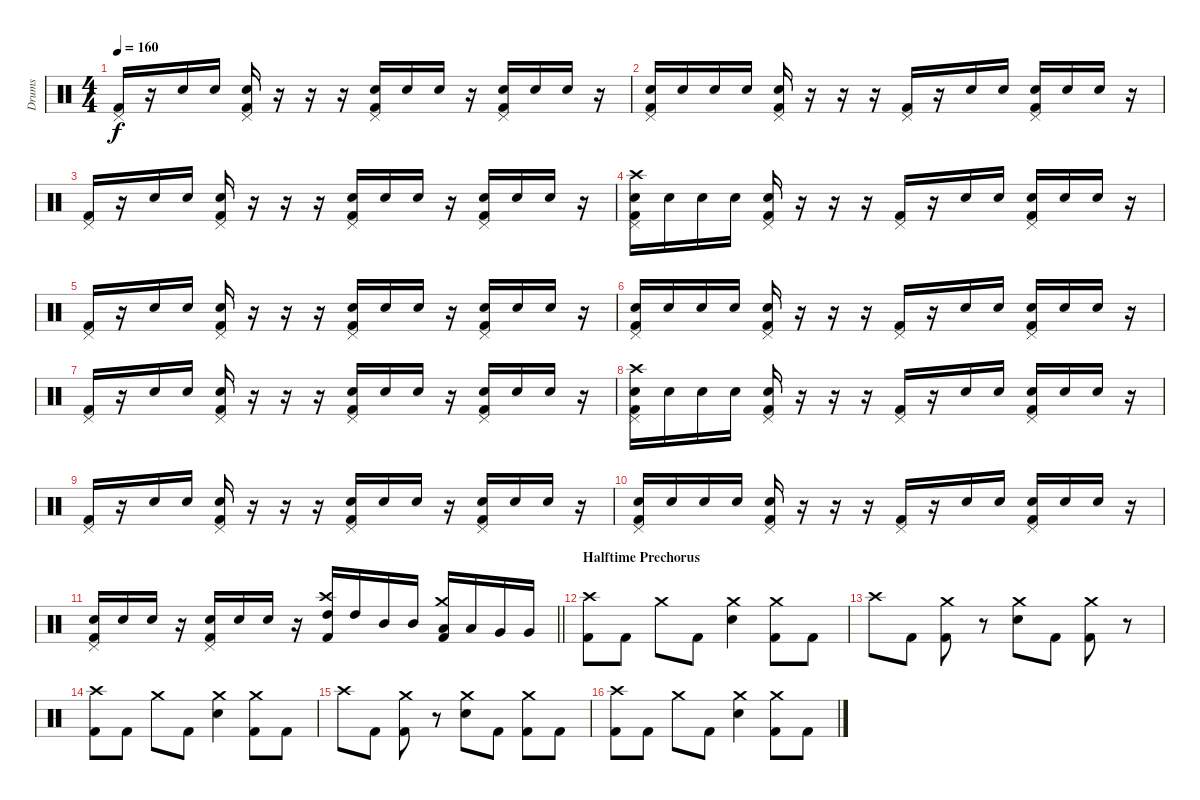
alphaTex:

\track ("Drums" "Drums") {instrument percussion}
\staff {score}
\articulation defaults
\ts (4 4)
\tempo 160
\clef neutral
\ks c
("Pedal Hi-Hat (hit)" "Kick (hit) 2").16{dy f} r.16 "Snare (hit) 2".16 "Snare (hit) 2".16 ("Pedal Hi-Hat (hit)" "Snare (hit) 2" "Kick (hit) 2").16 r.16 r.16 r.16 ("Pedal Hi-Hat (hit)" "Snare (hit) 2" "Kick (hit) 2").16 "Snare (hit) 2".16 "Snare (hit) 2".16 r.16 ("Pedal Hi-Hat (hit)" "Snare (hit) 2" "Kick (hit) 2").16 "Snare (hit) 2".16 "Snare (hit) 2".16 r.16 |
("Pedal Hi-Hat (hit)" "Snare (hit) 2" "Kick (hit) 2").16 "Snare (hit) 2".16 "Snare (hit) 2".16 "Snare (hit) 2".16 ("Pedal Hi-Hat (hit)" "Snare (hit) 2" "Kick (hit) 2").16 r.16 r.16 r.16 ("Pedal Hi-Hat (hit)" "Kick (hit) 2").16 r.16 "Snare (hit) 2".16 "Snare (hit) 2".16 ("Pedal Hi-Hat (hit)" "Snare (hit) 2" "Kick (hit) 2").16 "Snare (hit) 2".16 "Snare (hit) 2".16 r.16 |
("Pedal Hi-Hat (hit)" "Kick (hit) 2").16 r.16 "Snare (hit) 2".16 "Snare (hit) 2".16 ("Pedal Hi-Hat (hit)" "Snare (hit) 2" "Kick (hit) 2").16 r.16 r.16 r.16 ("Pedal Hi-Hat (hit)" "Snare (hit) 2" "Kick (hit) 2").16 "Snare (hit) 2".16 "Snare (hit) 2".16 r.16 ("Pedal Hi-Hat (hit)" "Snare (hit) 2" "Kick (hit) 2").16 "Snare (hit) 2".16 "Snare (hit) 2".16 r.16 |
("Crash high (hit)" "Pedal Hi-Hat (hit)" "Snare (hit) 2" "Kick (hit) 2").16 "Snare (hit) 2".16 "Snare (hit) 2".16 "Snare (hit) 2".16 ("Pedal Hi-Hat (hit)" "Snare (hit) 2" "Kick (hit) 2").16 r.16 r.16 r.16 ("Pedal Hi-Hat (hit)" "Kick (hit) 2").16 r.16 "Snare (hit) 2".16 "Snare (hit) 2".16 ("Pedal Hi-Hat (hit)" "Snare (hit) 2" "Kick (hit) 2").16 "Snare (hit) 2".16 "Snare (hit) 2".16 r.16 |
("Pedal Hi-Hat (hit)" "Kick (hit) 2").16 r.16 "Snare (hit) 2".16 "Snare (hit) 2".16 ("Pedal Hi-Hat (hit)" "Snare (hit) 2" "Kick (hit) 2").16 r.16 r.16 r.16 ("Pedal Hi-Hat (hit)" "Snare (hit) 2" "Kick (hit) 2").16 "Snare (hit) 2".16 "Snare (hit) 2".16 r.16 ("Pedal Hi-Hat (hit)" "Snare (hit) 2" "Kick (hit) 2").16 "Snare (hit) 2".16 "Snare (hit) 2".16 r.16 |
("Pedal Hi-Hat (hit)" "Snare (hit) 2" "Kick (hit) 2").16 "Snare (hit) 2".16 "Snare (hit) 2".16 "Snare (hit) 2".16 ("Pedal Hi-Hat (hit)" "Snare (hit) 2" "Kick (hit) 2").16 r.16 r.16 r.16 ("Pedal Hi-Hat (hit)" "Kick (hit) 2").16 r.16 "Snare (hit) 2".16 "Snare (hit) 2".16 ("Pedal Hi-Hat (hit)" "Snare (hit) 2" "Kick (hit) 2").16 "Snare (hit) 2".16 "Snare (hit) 2".16 r.16 |
("Pedal Hi-Hat (hit)" "Kick (hit) 2").16 r.16 "Snare (hit) 2".16 "Snare (hit) 2".16 ("Pedal Hi-Hat (hit)" "Snare (hit) 2" "Kick (hit) 2").16 r.16 r.16 r.16 ("Pedal Hi-Hat (hit)" "Snare (hit) 2" "Kick (hit) 2").16 "Snare (hit) 2".16 "Snare (hit) 2".16 r.16 ("Pedal Hi-Hat (hit)" "Snare (hit) 2" "Kick (hit) 2").16 "Snare (hit) 2".16 "Snare (hit) 2".16 r.16 |
("Crash high (hit)" "Pedal Hi-Hat (hit)" "Snare (hit) 2" "Kick (hit) 2").16 "Snare (hit) 2".16 "Snare (hit) 2".16 "Snare (hit) 2".16 ("Pedal Hi-Hat (hit)" "Snare (hit) 2" "Kick (hit) 2").16 r.16 r.16 r.16 ("Pedal Hi-Hat (hit)" "Kick (hit) 2").16 r.16 "Snare (hit) 2".16 "Snare (hit) 2".16 ("Pedal Hi-Hat (hit)" "Snare (hit) 2" "Kick (hit) 2").16 "Snare (hit) 2".16 "Snare (hit) 2".16 r.16 |
("Pedal Hi-Hat (hit)" "Kick (hit) 2").16 r.16 "Snare (hit) 2".16 "Snare (hit) 2".16 ("Pedal Hi-Hat (hit)" "Snare (hit) 2" "Kick (hit) 2").16 r.16 r.16 r.16 ("Pedal Hi-Hat (hit)" "Snare (hit) 2" "Kick (hit) 2").16 "Snare (hit) 2".16 "Snare (hit) 2".16 r.16 ("Pedal Hi-Hat (hit)" "Snare (hit) 2" "Kick (hit) 2").16 "Snare (hit) 2".16 "Snare (hit) 2".16 r.16 |
("Pedal Hi-Hat (hit)" "Snare (hit) 2" "Kick (hit) 2").16 "Snare (hit) 2".16 "Snare (hit) 2".16 "Snare (hit) 2".16 ("Pedal Hi-Hat (hit)" "Snare (hit) 2" "Kick (hit) 2").16 r.16 r.16 r.16 ("Pedal Hi-Hat (hit)" "Kick (hit) 2").16 r.16 "Snare (hit) 2".16 "Snare (hit) 2".16 ("Pedal Hi-Hat (hit)" "Snare (hit) 2" "Kick (hit) 2").16 "Snare (hit) 2".16 "Snare (hit) 2".16 r.16 |
\barLineRight lightlight
("Pedal Hi-Hat (hit)" "Snare (hit) 2" "Kick (hit) 2").16 "Snare (hit) 2".16 "Snare (hit) 2".16 r.16 ("Pedal Hi-Hat (hit)" "Snare (hit) 2" "Kick (hit) 2").16 "Snare (hit) 2".16 "Snare (hit) 2".16 r.16 ("Crash high (hit)" "High Tom (hit)" "Kick (hit) 2").16 "High Tom (hit)".16 "Mid Tom (hit)".16 "Mid Tom (hit)".16 ("Crash medium (hit)" "Low Tom (hit)" "Kick (hit) 2").16 "Low Tom (hit)".16 "Very Low Tom (hit)".16 "Very Low Tom (hit)".16 |
\section ("" "Halftime Prechorus")
("Crash high (hit)" "Kick (hit) 2").8 "Kick (hit) 2".8 "Crash medium (hit)".8 "Kick (hit) 2".8 ("Crash medium (hit)" "Snare (hit) 2").4 ("Crash medium (hit)" "Kick (hit) 2").8 "Kick (hit) 2".8 |
"Crash high (hit)".8 "Kick (hit) 2".8 ("Crash medium (hit)" "Kick (hit) 2").8 r.8 ("Crash medium (hit)" "Snare (hit) 2").8 "Kick (hit) 2".8 ("Crash medium (hit)" "Kick (hit) 2").8 r.8 |
("Crash high (hit)" "Kick (hit) 2").8 "Kick (hit) 2".8 "Crash medium (hit)".8 "Kick (hit) 2".8 ("Crash medium (hit)" "Snare (hit) 2").4 ("Crash medium (hit)" "Kick (hit) 2").8 "Kick (hit) 2".8 |
"Crash high (hit)".8 "Kick (hit) 2".8 ("Crash medium (hit)" "Kick (hit) 2").8 r.8 ("Crash medium (hit)" "Snare (hit) 2").8 "Kick (hit) 2".8 ("Crash medium (hit)" "Kick (hit) 2").8 "Kick (hit) 2".8 |
("Crash high (hit)" "Kick (hit) 2").8 "Kick (hit) 2".8 "Crash medium (hit)".8 "Kick (hit) 2".8 ("Crash medium (hit)" "Snare (hit) 2").4 ("Crash medium (hit)" "Kick (hit) 2").8 "Kick (hit) 2".8
